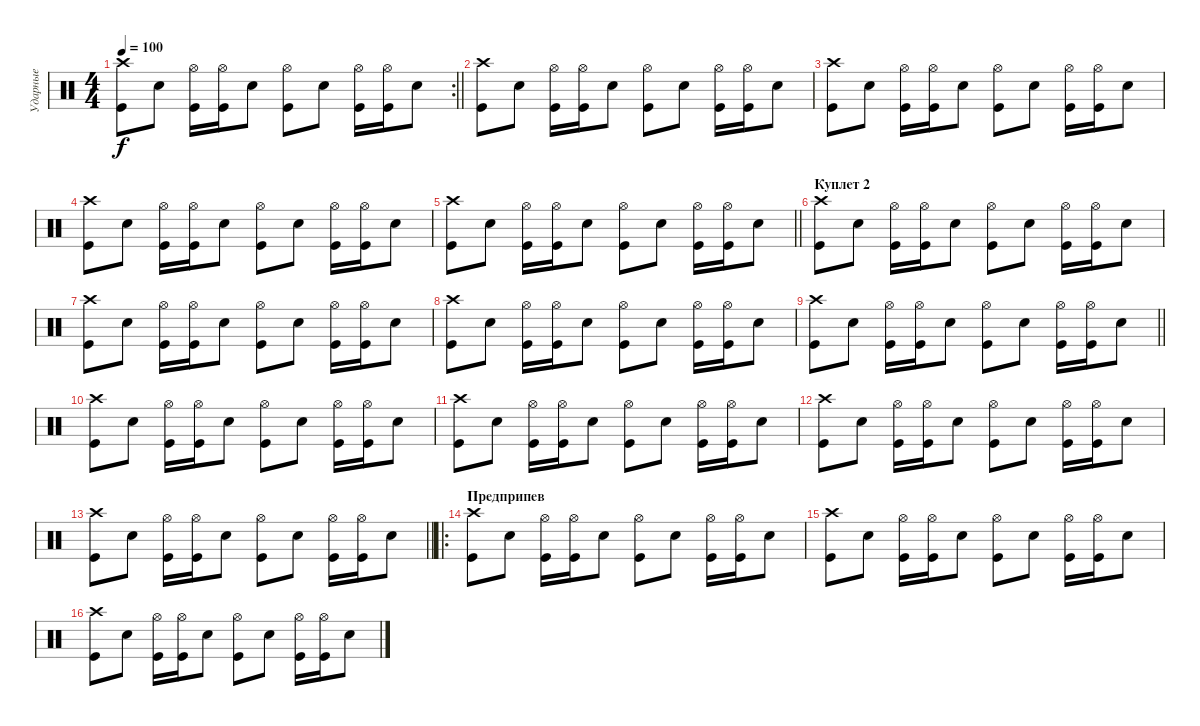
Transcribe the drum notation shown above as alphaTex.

\track ("Ударные" "Ударные") {instrument percussion}
\staff {score}
\articulation defaults
\rc 2
\ts (4 4)
\tempo 100
\clef neutral
\barLineRight lightlight
\ks c
("Crash high (hit)" "Kick (hit)").8{dy f} "Electric Snare (hit)".8 ("Hi-Hat (open)" "Kick (hit)").16 ("Hi-Hat (open)" "Kick (hit)").16 "Electric Snare (hit)".8 ("Hi-Hat (open)" "Kick (hit)").8 "Electric Snare (hit)".8 ("Hi-Hat (open)" "Kick (hit)").16 ("Hi-Hat (open)" "Kick (hit)").16 "Electric Snare (hit)".8 |
("Crash high (hit)" "Kick (hit)").8 "Electric Snare (hit)".8 ("Hi-Hat (open)" "Kick (hit)").16 ("Hi-Hat (open)" "Kick (hit)").16 "Electric Snare (hit)".8 ("Hi-Hat (open)" "Kick (hit)").8 "Electric Snare (hit)".8 ("Hi-Hat (open)" "Kick (hit)").16 ("Hi-Hat (open)" "Kick (hit)").16 "Electric Snare (hit)".8 |
("Crash high (hit)" "Kick (hit)").8 "Electric Snare (hit)".8 ("Hi-Hat (open)" "Kick (hit)").16 ("Hi-Hat (open)" "Kick (hit)").16 "Electric Snare (hit)".8 ("Hi-Hat (open)" "Kick (hit)").8 "Electric Snare (hit)".8 ("Hi-Hat (open)" "Kick (hit)").16 ("Hi-Hat (open)" "Kick (hit)").16 "Electric Snare (hit)".8 |
("Crash high (hit)" "Kick (hit)").8 "Electric Snare (hit)".8 ("Hi-Hat (open)" "Kick (hit)").16 ("Hi-Hat (open)" "Kick (hit)").16 "Electric Snare (hit)".8 ("Hi-Hat (open)" "Kick (hit)").8 "Electric Snare (hit)".8 ("Hi-Hat (open)" "Kick (hit)").16 ("Hi-Hat (open)" "Kick (hit)").16 "Electric Snare (hit)".8 |
\barLineRight lightlight
("Crash high (hit)" "Kick (hit)").8 "Electric Snare (hit)".8 ("Hi-Hat (open)" "Kick (hit)").16 ("Hi-Hat (open)" "Kick (hit)").16 "Electric Snare (hit)".8 ("Hi-Hat (open)" "Kick (hit)").8 "Electric Snare (hit)".8 ("Hi-Hat (open)" "Kick (hit)").16 ("Hi-Hat (open)" "Kick (hit)").16 "Electric Snare (hit)".8 |
\section ("" "Куплет 2")
("Crash high (hit)" "Kick (hit)").8 "Electric Snare (hit)".8 ("Hi-Hat (open)" "Kick (hit)").16 ("Hi-Hat (open)" "Kick (hit)").16 "Electric Snare (hit)".8 ("Hi-Hat (open)" "Kick (hit)").8 "Electric Snare (hit)".8 ("Hi-Hat (open)" "Kick (hit)").16 ("Hi-Hat (open)" "Kick (hit)").16 "Electric Snare (hit)".8 |
("Crash high (hit)" "Kick (hit)").8 "Electric Snare (hit)".8 ("Hi-Hat (open)" "Kick (hit)").16 ("Hi-Hat (open)" "Kick (hit)").16 "Electric Snare (hit)".8 ("Hi-Hat (open)" "Kick (hit)").8 "Electric Snare (hit)".8 ("Hi-Hat (open)" "Kick (hit)").16 ("Hi-Hat (open)" "Kick (hit)").16 "Electric Snare (hit)".8 |
("Crash high (hit)" "Kick (hit)").8 "Electric Snare (hit)".8 ("Hi-Hat (open)" "Kick (hit)").16 ("Hi-Hat (open)" "Kick (hit)").16 "Electric Snare (hit)".8 ("Hi-Hat (open)" "Kick (hit)").8 "Electric Snare (hit)".8 ("Hi-Hat (open)" "Kick (hit)").16 ("Hi-Hat (open)" "Kick (hit)").16 "Electric Snare (hit)".8 |
\barLineRight lightlight
("Crash high (hit)" "Kick (hit)").8 "Electric Snare (hit)".8 ("Hi-Hat (open)" "Kick (hit)").16 ("Hi-Hat (open)" "Kick (hit)").16 "Electric Snare (hit)".8 ("Hi-Hat (open)" "Kick (hit)").8 "Electric Snare (hit)".8 ("Hi-Hat (open)" "Kick (hit)").16 ("Hi-Hat (open)" "Kick (hit)").16 "Electric Snare (hit)".8 |
("Crash high (hit)" "Kick (hit)").8 "Electric Snare (hit)".8 ("Hi-Hat (open)" "Kick (hit)").16 ("Hi-Hat (open)" "Kick (hit)").16 "Electric Snare (hit)".8 ("Hi-Hat (open)" "Kick (hit)").8 "Electric Snare (hit)".8 ("Hi-Hat (open)" "Kick (hit)").16 ("Hi-Hat (open)" "Kick (hit)").16 "Electric Snare (hit)".8 |
("Crash high (hit)" "Kick (hit)").8 "Electric Snare (hit)".8 ("Hi-Hat (open)" "Kick (hit)").16 ("Hi-Hat (open)" "Kick (hit)").16 "Electric Snare (hit)".8 ("Hi-Hat (open)" "Kick (hit)").8 "Electric Snare (hit)".8 ("Hi-Hat (open)" "Kick (hit)").16 ("Hi-Hat (open)" "Kick (hit)").16 "Electric Snare (hit)".8 |
("Crash high (hit)" "Kick (hit)").8 "Electric Snare (hit)".8 ("Hi-Hat (open)" "Kick (hit)").16 ("Hi-Hat (open)" "Kick (hit)").16 "Electric Snare (hit)".8 ("Hi-Hat (open)" "Kick (hit)").8 "Electric Snare (hit)".8 ("Hi-Hat (open)" "Kick (hit)").16 ("Hi-Hat (open)" "Kick (hit)").16 "Electric Snare (hit)".8 |
\barLineRight lightlight
("Crash high (hit)" "Kick (hit)").8 "Electric Snare (hit)".8 ("Hi-Hat (open)" "Kick (hit)").16 ("Hi-Hat (open)" "Kick (hit)").16 "Electric Snare (hit)".8 ("Hi-Hat (open)" "Kick (hit)").8 "Electric Snare (hit)".8 ("Hi-Hat (open)" "Kick (hit)").16 ("Hi-Hat (open)" "Kick (hit)").16 "Electric Snare (hit)".8 |
\ro
\section ("" "Предприпев")
("Crash high (hit)" "Kick (hit)").8 "Electric Snare (hit)".8 ("Hi-Hat (open)" "Kick (hit)").16 ("Hi-Hat (open)" "Kick (hit)").16 "Electric Snare (hit)".8 ("Hi-Hat (open)" "Kick (hit)").8 "Electric Snare (hit)".8 ("Hi-Hat (open)" "Kick (hit)").16 ("Hi-Hat (open)" "Kick (hit)").16 "Electric Snare (hit)".8 |
("Crash high (hit)" "Kick (hit)").8 "Electric Snare (hit)".8 ("Hi-Hat (open)" "Kick (hit)").16 ("Hi-Hat (open)" "Kick (hit)").16 "Electric Snare (hit)".8 ("Hi-Hat (open)" "Kick (hit)").8 "Electric Snare (hit)".8 ("Hi-Hat (open)" "Kick (hit)").16 ("Hi-Hat (open)" "Kick (hit)").16 "Electric Snare (hit)".8 |
("Crash high (hit)" "Kick (hit)").8 "Electric Snare (hit)".8 ("Hi-Hat (open)" "Kick (hit)").16 ("Hi-Hat (open)" "Kick (hit)").16 "Electric Snare (hit)".8 ("Hi-Hat (open)" "Kick (hit)").8 "Electric Snare (hit)".8 ("Hi-Hat (open)" "Kick (hit)").16 ("Hi-Hat (open)" "Kick (hit)").16 "Electric Snare (hit)".8
